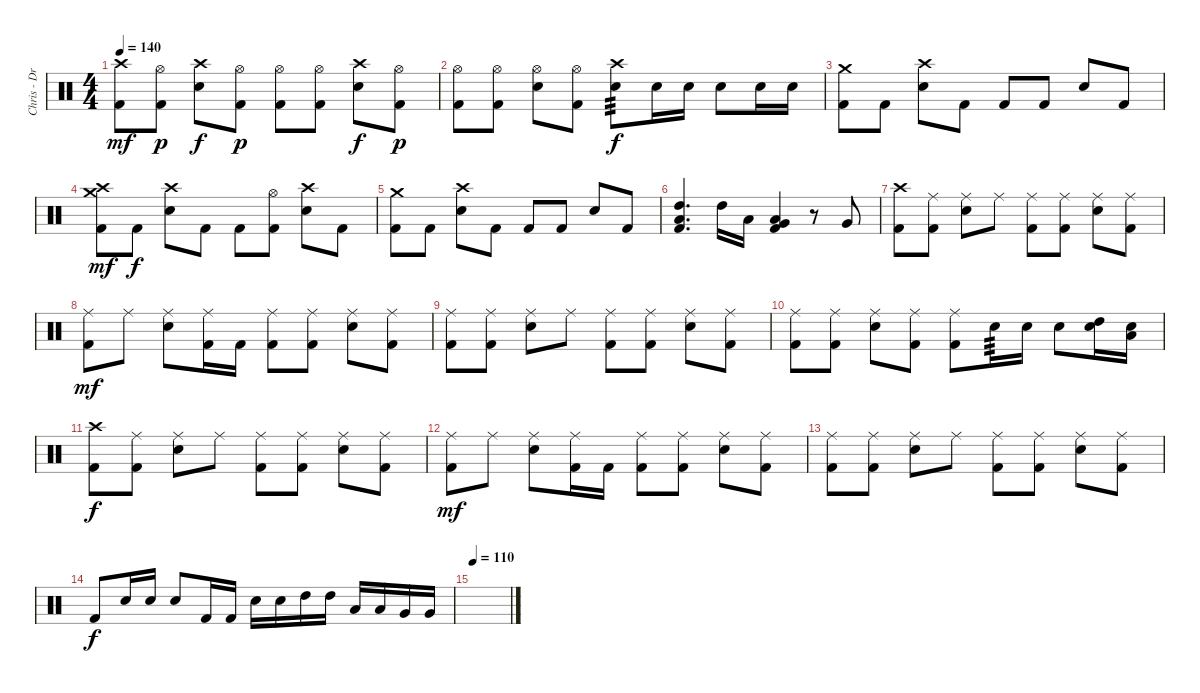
\track ("Chris - Drums" "Chris - Dr") {instrument percussion}
\staff {score}
\articulation defaults
\ts (4 4)
\tempo 140
\clef neutral
\ks c
("Crash high (hit)" "Kick (hit) 2").8{dy mf} ("Hi-Hat (open)" "Kick (hit) 2").8{dy p} ("Crash high (hit)" "Electric Snare (hit)").8{dy f} ("Hi-Hat (open)" "Kick (hit) 2").8{dy p} ("Hi-Hat (open)" "Kick (hit) 2").8 ("Hi-Hat (open)" "Kick (hit) 2").8 ("Crash high (hit)" "Electric Snare (hit)").8{dy f} ("Hi-Hat (open)" "Kick (hit) 2").8{dy p} |
("Hi-Hat (open)" "Kick (hit) 2").8 ("Hi-Hat (open)" "Kick (hit) 2").8 ("Hi-Hat (open)" "Electric Snare (hit)").8 ("Hi-Hat (open)" "Kick (hit) 2").8 ("Crash high (hit)" "Electric Snare (hit)").8{tp 3 dy f} "Electric Snare (hit)".16 "Electric Snare (hit)".16 "Electric Snare (hit)".8 "Electric Snare (hit)".16 "Electric Snare (hit)".16 |
("Crash medium (hit)" "Kick (hit) 2").8 "Kick (hit) 2".8 ("Crash high (hit)" "Electric Snare (hit)").8 "Kick (hit) 2".8 "Kick (hit) 2".8 "Kick (hit) 2".8 "Electric Snare (hit)".8 "Kick (hit) 2".8 |
("Crash medium (hit)" "Crash high (hit)" "Kick (hit) 2").8{dy mf} "Kick (hit) 2".8{dy f} ("Crash high (hit)" "Electric Snare (hit)").8 "Kick (hit) 2".8 "Kick (hit) 2".8 ("Hi-Hat (open)" "Kick (hit) 2").8 ("Crash high (hit)" "Electric Snare (hit)").8 "Kick (hit) 2".8 |
("Crash medium (hit)" "Kick (hit) 2").8 "Kick (hit) 2".8 ("Crash high (hit)" "Electric Snare (hit)").8 "Kick (hit) 2".8 "Kick (hit) 2".8 "Kick (hit) 2".8 "Electric Snare (hit)".8 "Kick (hit) 2".8 |
("High Tom (hit)" "Low Tom (hit)" "Kick (hit) 2").4{d} "High Tom (hit)".16 "Low Tom (hit)".16 ("Low Tom (hit)" "Very Low Tom (hit)" "Kick (hit) 2").4 r.8 "Very Low Tom (hit)".8 |
("Crash high (hit)" "Kick (hit) 2").8 ("Ride (middle)" "Kick (hit) 2").8 ("Ride (middle)" "Electric Snare (hit)").8 "Ride (middle)".8 ("Ride (middle)" "Kick (hit) 2").8 ("Ride (middle)" "Kick (hit) 2").8 ("Ride (middle)" "Electric Snare (hit)").8 ("Ride (middle)" "Kick (hit) 2").8 |
("Ride (middle)" "Kick (hit) 2").8{dy mf} "Ride (middle)".8 ("Ride (middle)" "Electric Snare (hit)").8 ("Ride (middle)" "Kick (hit) 2").16 "Kick (hit) 2".16 ("Ride (middle)" "Kick (hit) 2").8 ("Ride (middle)" "Kick (hit) 2").8 ("Ride (middle)" "Electric Snare (hit)").8 ("Ride (middle)" "Kick (hit) 2").8 |
("Ride (middle)" "Kick (hit) 2").8 ("Ride (middle)" "Kick (hit) 2").8 ("Ride (middle)" "Electric Snare (hit)").8 "Ride (middle)".8 ("Ride (middle)" "Kick (hit) 2").8 ("Ride (middle)" "Kick (hit) 2").8 ("Ride (middle)" "Electric Snare (hit)").8 ("Ride (middle)" "Kick (hit) 2").8 |
("Ride (middle)" "Kick (hit) 2").8 ("Ride (middle)" "Kick (hit) 2").8 ("Ride (middle)" "Electric Snare (hit)").8 ("Ride (middle)" "Kick (hit) 2").8 ("Ride (middle)" "Kick (hit) 2").8 "Electric Snare (hit)".16{tp 3} "Electric Snare (hit)".16 "Electric Snare (hit)".8 ("High Tom (hit)" "Electric Snare (hit)").16 ("Low Tom (hit)" "Electric Snare (hit)").16 |
("Crash high (hit)" "Kick (hit) 2").8{dy f} ("Ride (middle)" "Kick (hit) 2").8 ("Ride (middle)" "Electric Snare (hit)").8 "Ride (middle)".8 ("Ride (middle)" "Kick (hit) 2").8 ("Ride (middle)" "Kick (hit) 2").8 ("Ride (middle)" "Electric Snare (hit)").8 ("Ride (middle)" "Kick (hit) 2").8 |
("Ride (middle)" "Kick (hit) 2").8{dy mf} "Ride (middle)".8 ("Ride (middle)" "Electric Snare (hit)").8 ("Ride (middle)" "Kick (hit) 2").16 "Kick (hit) 2".16 ("Ride (middle)" "Kick (hit) 2").8 ("Ride (middle)" "Kick (hit) 2").8 ("Ride (middle)" "Electric Snare (hit)").8 ("Ride (middle)" "Kick (hit) 2").8 |
("Ride (middle)" "Kick (hit) 2").8 ("Ride (middle)" "Kick (hit) 2").8 ("Ride (middle)" "Electric Snare (hit)").8 "Ride (middle)".8 ("Ride (middle)" "Kick (hit) 2").8 ("Ride (middle)" "Kick (hit) 2").8 ("Ride (middle)" "Electric Snare (hit)").8 ("Ride (middle)" "Kick (hit) 2").8 |
"Kick (hit) 2".8{dy f} "Electric Snare (hit)".16 "Electric Snare (hit)".16 "Electric Snare (hit)".8 "Kick (hit) 2".16 "Kick (hit) 2".16 "Electric Snare (hit)".16 "Electric Snare (hit)".16 "High Tom (hit)".16 "High Tom (hit)".16 "Low Tom (hit)".16 "Low Tom (hit)".16 "Very Low Tom (hit)".16 "Very Low Tom (hit)".16 |
\tempo 110
